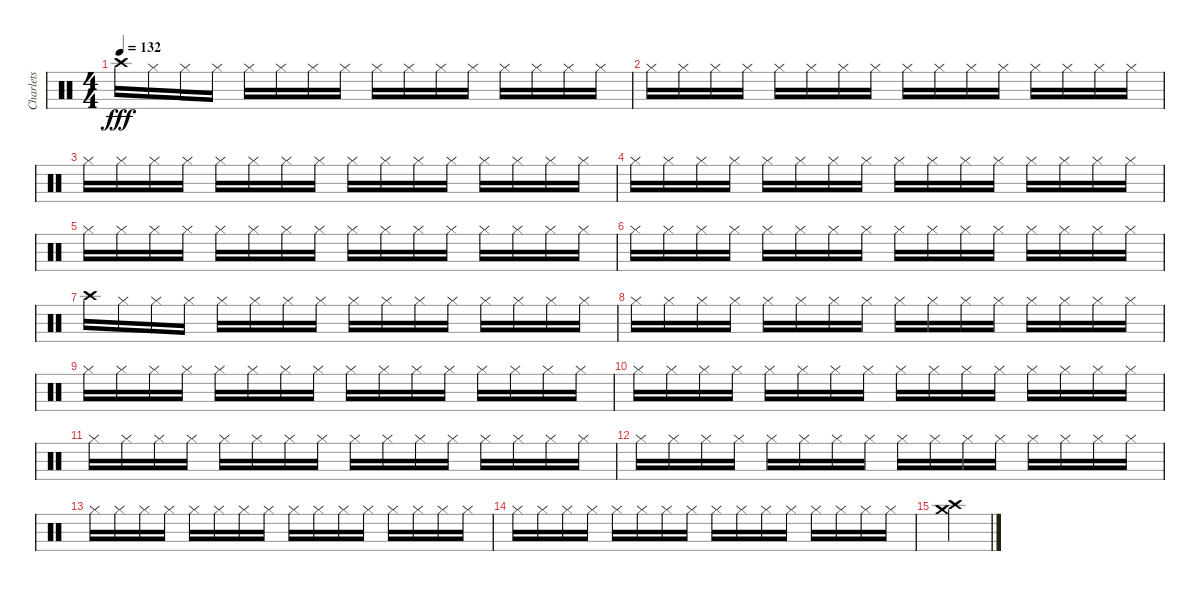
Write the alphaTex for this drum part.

\track ("Charlets" "Charlets") {instrument percussion}
\staff {score}
\articulation defaults
\ts (4 4)
\tempo 132
\clef neutral
\ks c "Crash high (hit)".16{dy fff} "Hi-Hat (closed)".16 "Hi-Hat (closed)".16 "Hi-Hat (closed)".16 "Hi-Hat (closed)".16 "Hi-Hat (closed)".16 "Hi-Hat (closed)".16 "Hi-Hat (closed)".16 "Hi-Hat (closed)".16 "Hi-Hat (closed)".16 "Hi-Hat (closed)".16 "Hi-Hat (closed)".16 "Hi-Hat (closed)".16 "Hi-Hat (closed)".16 "Hi-Hat (closed)".16 "Hi-Hat (closed)".16
|
"Hi-Hat (closed)".16 "Hi-Hat (closed)".16 "Hi-Hat (closed)".16 "Hi-Hat (closed)".16 "Hi-Hat (closed)".16 "Hi-Hat (closed)".16 "Hi-Hat (closed)".16 "Hi-Hat (closed)".16 "Hi-Hat (closed)".16 "Hi-Hat (closed)".16 "Hi-Hat (closed)".16 "Hi-Hat (closed)".16 "Hi-Hat (closed)".16 "Hi-Hat (closed)".16 "Hi-Hat (closed)".16 "Hi-Hat (closed)".16 |
"Hi-Hat (closed)".16 "Hi-Hat (closed)".16 "Hi-Hat (closed)".16 "Hi-Hat (closed)".16 "Hi-Hat (closed)".16 "Hi-Hat (closed)".16 "Hi-Hat (closed)".16 "Hi-Hat (closed)".16 "Hi-Hat (closed)".16 "Hi-Hat (closed)".16 "Hi-Hat (closed)".16 "Hi-Hat (closed)".16 "Hi-Hat (closed)".16 "Hi-Hat (closed)".16 "Hi-Hat (closed)".16 "Hi-Hat (closed)".16 |
"Hi-Hat (closed)".16 "Hi-Hat (closed)".16 "Hi-Hat (closed)".16 "Hi-Hat (closed)".16 "Hi-Hat (closed)".16 "Hi-Hat (closed)".16 "Hi-Hat (closed)".16 "Hi-Hat (closed)".16 "Hi-Hat (closed)".16 "Hi-Hat (closed)".16 "Hi-Hat (closed)".16 "Hi-Hat (closed)".16 "Hi-Hat (closed)".16 "Hi-Hat (closed)".16 "Hi-Hat (closed)".16 "Hi-Hat (closed)".16 |
"Hi-Hat (closed)".16 "Hi-Hat (closed)".16 "Hi-Hat (closed)".16 "Hi-Hat (closed)".16 "Hi-Hat (closed)".16 "Hi-Hat (closed)".16 "Hi-Hat (closed)".16 "Hi-Hat (closed)".16 "Hi-Hat (closed)".16 "Hi-Hat (closed)".16 "Hi-Hat (closed)".16 "Hi-Hat (closed)".16 "Hi-Hat (closed)".16 "Hi-Hat (closed)".16 "Hi-Hat (closed)".16 "Hi-Hat (closed)".16 |
"Hi-Hat (closed)".16 "Hi-Hat (closed)".16 "Hi-Hat (closed)".16 "Hi-Hat (closed)".16 "Hi-Hat (closed)".16 "Hi-Hat (closed)".16 "Hi-Hat (closed)".16 "Hi-Hat (closed)".16 "Hi-Hat (closed)".16 "Hi-Hat (closed)".16 "Hi-Hat (closed)".16 "Hi-Hat (closed)".16 "Hi-Hat (closed)".16 "Hi-Hat (closed)".16 "Hi-Hat (closed)".16 "Hi-Hat (closed)".16 |
"Crash high (hit)".16 "Hi-Hat (closed)".16 "Hi-Hat (closed)".16 "Hi-Hat (closed)".16 "Hi-Hat (closed)".16 "Hi-Hat (closed)".16 "Hi-Hat (closed)".16 "Hi-Hat (closed)".16 "Hi-Hat (closed)".16 "Hi-Hat (closed)".16 "Hi-Hat (closed)".16 "Hi-Hat (closed)".16 "Hi-Hat (closed)".16 "Hi-Hat (closed)".16 "Hi-Hat (closed)".16 "Hi-Hat (closed)".16 |
"Hi-Hat (closed)".16 "Hi-Hat (closed)".16 "Hi-Hat (closed)".16 "Hi-Hat (closed)".16 "Hi-Hat (closed)".16 "Hi-Hat (closed)".16 "Hi-Hat (closed)".16 "Hi-Hat (closed)".16 "Hi-Hat (closed)".16 "Hi-Hat (closed)".16 "Hi-Hat (closed)".16 "Hi-Hat (closed)".16 "Hi-Hat (closed)".16 "Hi-Hat (closed)".16 "Hi-Hat (closed)".16 "Hi-Hat (closed)".16 |
"Hi-Hat (closed)".16 "Hi-Hat (closed)".16 "Hi-Hat (closed)".16 "Hi-Hat (closed)".16 "Hi-Hat (closed)".16 "Hi-Hat (closed)".16 "Hi-Hat (closed)".16 "Hi-Hat (closed)".16 "Hi-Hat (closed)".16 "Hi-Hat (closed)".16 "Hi-Hat (closed)".16 "Hi-Hat (closed)".16 "Hi-Hat (closed)".16 "Hi-Hat (closed)".16 "Hi-Hat (closed)".16 "Hi-Hat (closed)".16 |
"Hi-Hat (closed)".16 "Hi-Hat (closed)".16 "Hi-Hat (closed)".16 "Hi-Hat (closed)".16 "Hi-Hat (closed)".16 "Hi-Hat (closed)".16 "Hi-Hat (closed)".16 "Hi-Hat (closed)".16 "Hi-Hat (closed)".16 "Hi-Hat (closed)".16 "Hi-Hat (closed)".16 "Hi-Hat (closed)".16 "Hi-Hat (closed)".16 "Hi-Hat (closed)".16 "Hi-Hat (closed)".16 "Hi-Hat (closed)".16 |
"Hi-Hat (closed)".16 "Hi-Hat (closed)".16 "Hi-Hat (closed)".16 "Hi-Hat (closed)".16 "Hi-Hat (closed)".16 "Hi-Hat (closed)".16 "Hi-Hat (closed)".16 "Hi-Hat (closed)".16 "Hi-Hat (closed)".16 "Hi-Hat (closed)".16 "Hi-Hat (closed)".16 "Hi-Hat (closed)".16 "Hi-Hat (closed)".16 "Hi-Hat (closed)".16 "Hi-Hat (closed)".16 "Hi-Hat (closed)".16 |
"Hi-Hat (closed)".16 "Hi-Hat (closed)".16 "Hi-Hat (closed)".16 "Hi-Hat (closed)".16 "Hi-Hat (closed)".16 "Hi-Hat (closed)".16 "Hi-Hat (closed)".16 "Hi-Hat (closed)".16 "Hi-Hat (closed)".16 "Hi-Hat (closed)".16 "Hi-Hat (closed)".16 "Hi-Hat (closed)".16 "Hi-Hat (closed)".16 "Hi-Hat (closed)".16 "Hi-Hat (closed)".16 "Hi-Hat (closed)".16 |
"Hi-Hat (closed)".16 "Hi-Hat (closed)".16 "Hi-Hat (closed)".16 "Hi-Hat (closed)".16 "Hi-Hat (closed)".16 "Hi-Hat (closed)".16 "Hi-Hat (closed)".16 "Hi-Hat (closed)".16 "Hi-Hat (closed)".16 "Hi-Hat (closed)".16 "Hi-Hat (closed)".16 "Hi-Hat (closed)".16 "Hi-Hat (closed)".16 "Hi-Hat (closed)".16 "Hi-Hat (closed)".16 "Hi-Hat (closed)".16 |
"Hi-Hat (closed)".16 "Hi-Hat (closed)".16 "Hi-Hat (closed)".16 "Hi-Hat (closed)".16 "Hi-Hat (closed)".16 "Hi-Hat (closed)".16 "Hi-Hat (closed)".16 "Hi-Hat (closed)".16 "Hi-Hat (closed)".16 "Hi-Hat (closed)".16 "Hi-Hat (closed)".16 "Hi-Hat (closed)".16 "Hi-Hat (closed)".16 "Hi-Hat (closed)".16 "Hi-Hat (closed)".16 "Hi-Hat (closed)".16 |
("Crash medium (hit)" "Crash high (hit)").4
